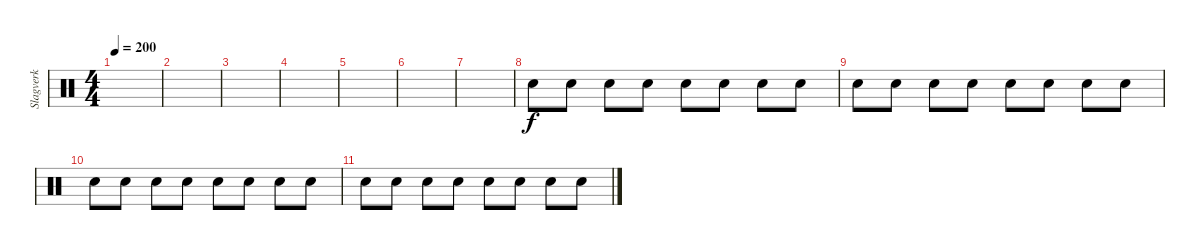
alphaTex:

\track ("Slagverk" "Slagverk") {instrument percussion}
\staff {score}
\articulation defaults
\ts (4 4)
\tempo 200
\clef neutral
\ks c
|
|
|
|
|
|
|
"Hand Clap (hit)".8 "Hand Clap (hit)".8 "Hand Clap (hit)".8 "Hand Clap (hit)".8 "Hand Clap (hit)".8 "Hand Clap (hit)".8 "Hand Clap (hit)".8 "Hand Clap (hit)".8 |
"Hand Clap (hit)".8 "Hand Clap (hit)".8 "Hand Clap (hit)".8 "Hand Clap (hit)".8 "Hand Clap (hit)".8 "Hand Clap (hit)".8 "Hand Clap (hit)".8 "Hand Clap (hit)".8 |
"Hand Clap (hit)".8 "Hand Clap (hit)".8 "Hand Clap (hit)".8 "Hand Clap (hit)".8 "Hand Clap (hit)".8 "Hand Clap (hit)".8 "Hand Clap (hit)".8 "Hand Clap (hit)".8 |
"Hand Clap (hit)".8 "Hand Clap (hit)".8 "Hand Clap (hit)".8 "Hand Clap (hit)".8 "Hand Clap (hit)".8 "Hand Clap (hit)".8 "Hand Clap (hit)".8 "Hand Clap (hit)".8
